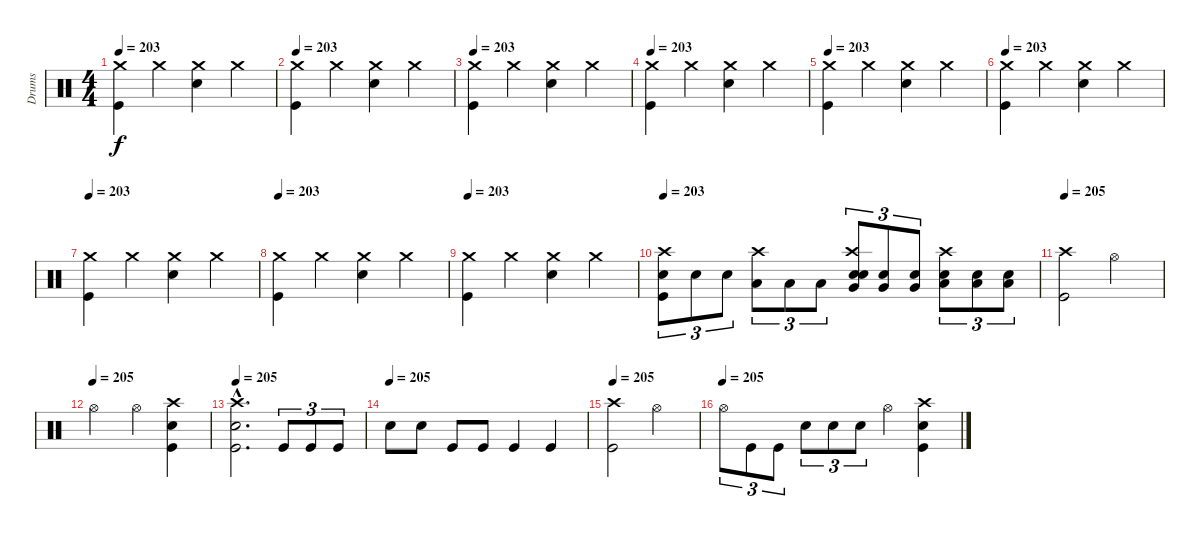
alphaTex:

\track ("Drums" "Drums") {instrument percussion}
\staff {score}
\articulation defaults
\ts (4 4)
\tempo 203
\clef neutral
\ks c
("Crash medium (hit)" "Kick (hit)").4{dy f} "Crash medium (hit)".4 ("Electric Snare (hit)" "Crash medium (hit)").4 "Crash medium (hit)".4 |
\tempo 203
("Crash medium (hit)" "Kick (hit)").4 "Crash medium (hit)".4 ("Electric Snare (hit)" "Crash medium (hit)").4 "Crash medium (hit)".4 |
\tempo 203
("Crash medium (hit)" "Kick (hit)").4 "Crash medium (hit)".4 ("Electric Snare (hit)" "Crash medium (hit)").4 "Crash medium (hit)".4 |
\tempo 203
("Crash medium (hit)" "Kick (hit)").4 "Crash medium (hit)".4 ("Electric Snare (hit)" "Crash medium (hit)").4 "Crash medium (hit)".4 |
\tempo 203
("Crash medium (hit)" "Kick (hit)").4 "Crash medium (hit)".4 ("Electric Snare (hit)" "Crash medium (hit)").4 "Crash medium (hit)".4 |
\tempo 203
("Crash medium (hit)" "Kick (hit)").4 "Crash medium (hit)".4 ("Electric Snare (hit)" "Crash medium (hit)").4 "Crash medium (hit)".4 |
\tempo 203
("Crash medium (hit)" "Kick (hit)").4 "Crash medium (hit)".4 ("Electric Snare (hit)" "Crash medium (hit)").4 "Crash medium (hit)".4 |
\tempo 203
("Crash medium (hit)" "Kick (hit)").4 "Crash medium (hit)".4 ("Electric Snare (hit)" "Crash medium (hit)").4 "Crash medium (hit)".4 |
\tempo 203
("Crash medium (hit)" "Kick (hit)").4 "Crash medium (hit)".4 ("Electric Snare (hit)" "Crash medium (hit)").4 "Crash medium (hit)".4 |
\tempo 203
("Electric Snare (hit)" "Crash high (hit)" "Kick (hit)").8{tu (3 2)} "Electric Snare (hit)".8{tu (3 2)} "Electric Snare (hit)".8{tu (3 2)} ("Low Tom (hit)" "Crash high (hit)").8{tu (3 2)} "Low Tom (hit)".8{tu (3 2)} "Low Tom (hit)".8{tu (3 2)} ("Electric Snare (hit)" "Very Low Tom (hit)" "Crash high (hit)" "Electric Snare (hit)").8{tu (3 2)} ("Very Low Tom (hit)" "Electric Snare (hit)").8{tu (3 2)} ("Very Low Tom (hit)" "Electric Snare (hit)").8{tu (3 2)} ("Low Floor Tom (hit)" "Crash high (hit)" "Electric Snare (hit)").8{tu (3 2)} ("Low Floor Tom (hit)" "Electric Snare (hit)").8{tu (3 2)} ("Low Floor Tom (hit)" "Electric Snare (hit)").8{tu (3 2)} |
\tempo 205
("Crash high (hit)" "Kick (hit)").2 "Hi-Hat (open)".2 |
\tempo (205)
"Hi-Hat (open)".2 "Hi-Hat (open)".4 ("Electric Snare (hit)" "Crash high (hit)" "Kick (hit)").4 |
\tempo 205
("Electric Snare (hit)"{hac} "Crash high (hit)"{hac} "Kick (hit)"{hac}).2{d} "Kick (hit)".8{tu (3 2)} "Kick (hit)".8{tu (3 2)} "Kick (hit)".8{tu (3 2)} |
\tempo (205)
"Electric Snare (hit)".8 "Electric Snare (hit)".8 "Kick (hit)".8 "Kick (hit)".8 "Kick (hit)".4 "Kick (hit)".4 |
\tempo 205
("Crash high (hit)" "Kick (hit)").2 "Hi-Hat (open)".2 |
\tempo (205)
"Hi-Hat (open)".8{tu (3 2)} "Kick (hit)".8{tu (3 2)} "Kick (hit)".8{tu (3 2)} "Electric Snare (hit)".8{tu (3 2)} "Electric Snare (hit)".8{tu (3 2)} "Electric Snare (hit)".8{tu (3 2)} "Hi-Hat (open)".4 ("Electric Snare (hit)" "Crash high (hit)" "Kick (hit)").4
